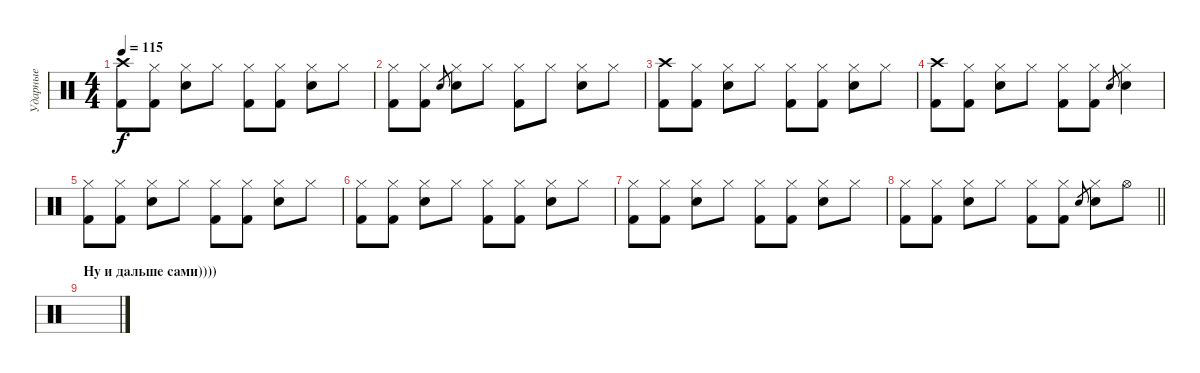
\track ("Ударные" "Ударные") {instrument percussion}
\staff {score}
\articulation defaults
\ts (4 4)
\tempo 115
\clef neutral
\ks c
("Crash high (hit)" "Kick (hit) 2").8{dy f} ("Hi-Hat (closed)" "Kick (hit) 2").8 ("Hi-Hat (closed)" "Snare (hit) 2").8 "Hi-Hat (closed)".8 ("Hi-Hat (closed)" "Kick (hit) 2").8 ("Hi-Hat (closed)" "Kick (hit) 2").8 ("Hi-Hat (closed)" "Snare (hit) 2").8 "Hi-Hat (closed)".8 |
("Hi-Hat (closed)" "Kick (hit) 2").8 ("Hi-Hat (closed)" "Kick (hit) 2").8 "Snare (hit) 2".8{gr} ("Hi-Hat (closed)" "Snare (hit) 2").8 "Hi-Hat (closed)".8 ("Hi-Hat (closed)" "Kick (hit) 2").8 "Hi-Hat (closed)".8 ("Hi-Hat (closed)" "Snare (hit) 2").8 "Hi-Hat (closed)".8 |
("Crash high (hit)" "Kick (hit) 2").8 ("Hi-Hat (closed)" "Kick (hit) 2").8 ("Hi-Hat (closed)" "Snare (hit) 2").8 "Hi-Hat (closed)".8 ("Hi-Hat (closed)" "Kick (hit) 2").8 ("Hi-Hat (closed)" "Kick (hit) 2").8 ("Hi-Hat (closed)" "Snare (hit) 2").8 "Hi-Hat (closed)".8 |
("Crash high (hit)" "Kick (hit) 2").8 ("Hi-Hat (closed)" "Kick (hit) 2").8 ("Hi-Hat (closed)" "Snare (hit) 2").8 "Hi-Hat (closed)".8 ("Hi-Hat (closed)" "Kick (hit) 2").8 ("Hi-Hat (closed)" "Kick (hit) 2").8 "Snare (hit) 2".8{gr} ("Hi-Hat (closed)" "Snare (hit) 2").4 |
("Hi-Hat (closed)" "Kick (hit) 2").8 ("Hi-Hat (closed)" "Kick (hit) 2").8 ("Hi-Hat (closed)" "Snare (hit) 2").8 "Hi-Hat (closed)".8 ("Hi-Hat (closed)" "Kick (hit) 2").8 ("Hi-Hat (closed)" "Kick (hit) 2").8 ("Hi-Hat (closed)" "Snare (hit) 2").8 "Hi-Hat (closed)".8 |
("Hi-Hat (closed)" "Kick (hit) 2").8 ("Hi-Hat (closed)" "Kick (hit) 2").8 ("Hi-Hat (closed)" "Snare (hit) 2").8 "Hi-Hat (closed)".8 ("Hi-Hat (closed)" "Kick (hit) 2").8 ("Hi-Hat (closed)" "Kick (hit) 2").8 ("Hi-Hat (closed)" "Snare (hit) 2").8 "Hi-Hat (closed)".8 |
("Hi-Hat (closed)" "Kick (hit) 2").8 ("Hi-Hat (closed)" "Kick (hit) 2").8 ("Hi-Hat (closed)" "Snare (hit) 2").8 "Hi-Hat (closed)".8 ("Hi-Hat (closed)" "Kick (hit) 2").8 ("Hi-Hat (closed)" "Kick (hit) 2").8 ("Hi-Hat (closed)" "Snare (hit) 2").8 "Hi-Hat (closed)".8 |
\barLineRight lightlight
("Hi-Hat (closed)" "Kick (hit) 2").8 ("Hi-Hat (closed)" "Kick (hit) 2").8 ("Hi-Hat (closed)" "Snare (hit) 2").8 "Hi-Hat (closed)".8 ("Hi-Hat (closed)" "Kick (hit) 2").8 ("Hi-Hat (closed)" "Kick (hit) 2").8 "Snare (hit) 2".8{gr} ("Hi-Hat (closed)" "Snare (hit) 2").8 "Hi-Hat (open)".8 |
\section ("" "Ну и дальше сами))))")
